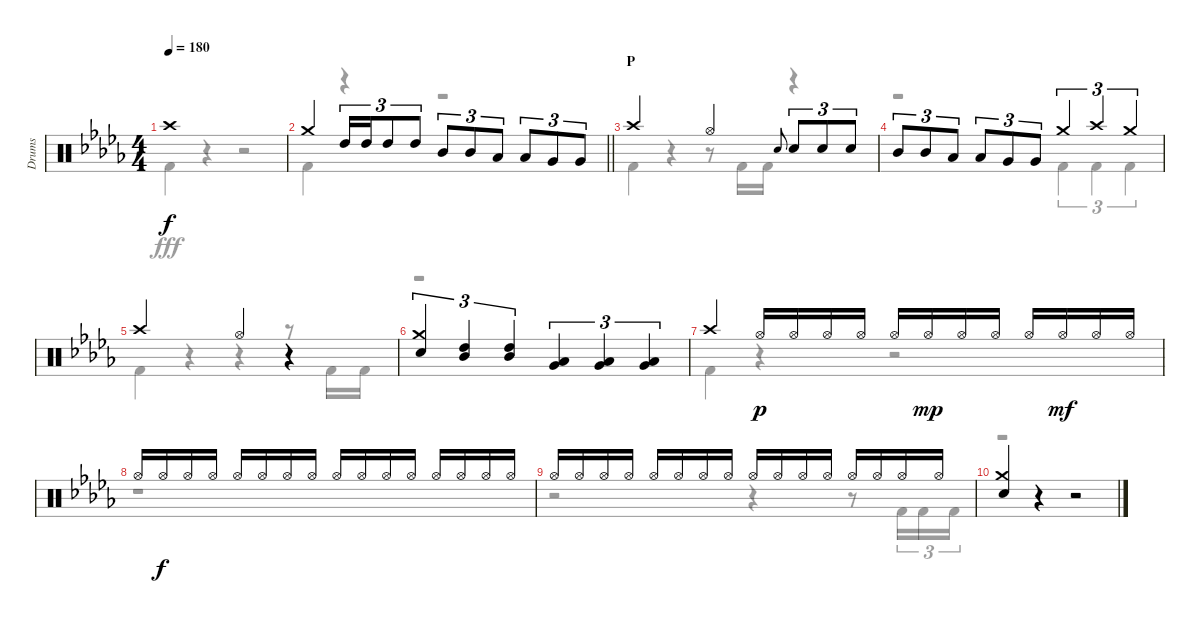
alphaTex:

\track ("Drums" "Drums") {instrument percussion}
\staff {score}
\articulation defaults
\voice
\ts (4 4)
\tempo 180
\clef neutral
\ks db "Crash high (hit)".1{dy f}
|
\barLineRight lightlight "Crash medium (hit)".4 "High Tom (hit)".16{tu (3 2)} "High Tom (hit)".16{tu (3 2)} "High Tom (hit)".8{tu (3 2)} "High Tom (hit)".8{tu (3 2)} "Mid Tom (hit)".8{tu (3 2)} "Mid Tom (hit)".8{tu (3 2)} "Low Tom (hit)".8{tu (3 2)} "Low Tom (hit)".8{tu (3 2)} "Very Low Tom (hit)".8{tu (3 2)} "Very Low Tom (hit)".8{tu (3 2)}
|
\section ("" "P")
"Crash high (hit)".2 "Hi-Hat (open)".4 "Snare (hit) 2".8{gr onbeat} "Snare (hit) 2".8{tu (3 2)} "Snare (hit) 2".8{tu (3 2)} "Snare (hit) 2".8{tu (3 2)} |
"Mid Tom (hit)".8{tu (3 2)} "Mid Tom (hit)".8{tu (3 2)} "Low Tom (hit)".8{tu (3 2)} "Low Tom (hit)".8{tu (3 2)} "Very Low Tom (hit)".8{tu (3 2)} "Very Low Tom (hit)".8{tu (3 2)} "Crash medium (hit)".4{tu (3 2)} "Crash high (hit)".4{tu (3 2)} "Crash medium (hit)".4{tu (3 2)} |
"Crash high (hit)".2 "Hi-Hat (open)".4 r.4 |
("Crash medium (hit)" "Snare (hit) 2").4{tu (3 2)} ("High Tom (hit)" "Mid Tom (hit)").4{tu (3 2)} ("High Tom (hit)" "Mid Tom (hit)").4{tu (3 2)} ("Low Tom (hit)" "Very Low Tom (hit)").4{tu (3 2)} ("Low Tom (hit)" "Very Low Tom (hit)").4{tu (3 2)} ("Low Tom (hit)" "Very Low Tom (hit)").4{tu (3 2)} |
"Crash high (hit)".4 "Hi-Hat (open)".16{dy p} "Hi-Hat (open)".16 "Hi-Hat (open)".16 "Hi-Hat (open)".16 "Hi-Hat (open)".16 "Hi-Hat (open)".16{dy mp} "Hi-Hat (open)".16 "Hi-Hat (open)".16 "Hi-Hat (open)".16 "Hi-Hat (open)".16{dy mf} "Hi-Hat (open)".16 "Hi-Hat (open)".16 |
"Hi-Hat (open)".16 "Hi-Hat (open)".16{dy f} "Hi-Hat (open)".16 "Hi-Hat (open)".16 "Hi-Hat (open)".16 "Hi-Hat (open)".16 "Hi-Hat (open)".16 "Hi-Hat (open)".16 "Hi-Hat (open)".16 "Hi-Hat (open)".16 "Hi-Hat (open)".16 "Hi-Hat (open)".16 "Hi-Hat (open)".16 "Hi-Hat (open)".16 "Hi-Hat (open)".16 "Hi-Hat (open)".16 |
"Hi-Hat (open)".16 "Hi-Hat (open)".16 "Hi-Hat (open)".16 "Hi-Hat (open)".16 "Hi-Hat (open)".16 "Hi-Hat (open)".16 "Hi-Hat (open)".16 "Hi-Hat (open)".16 "Hi-Hat (open)".16 "Hi-Hat (open)".16 "Hi-Hat (open)".16 "Hi-Hat (open)".16 "Hi-Hat (open)".16 "Hi-Hat (open)".16 "Hi-Hat (open)".16 "Hi-Hat (open)".16 |
("Crash medium (hit)" "Snare (hit) 2").4 r.4 r.2
\voice
\clef neutral
\ottava regular
\simile none
\ks db "Kick (hit) 2".4{dy fff}
r.4 r.2 |
\barLineRight lightlight "Kick (hit) 2".4
r.4 r.2 |
"Kick (hit) 2".4 r.4 r.8 "Kick (hit) 2".16 "Kick (hit) 2".16 r.4 |
r.2 "Kick (hit) 2".4{tu (3 2)} "Kick (hit) 2".4{tu (3 2)} "Kick (hit) 2".4{tu (3 2)} |
"Kick (hit) 2".4 r.4 r.4 r.8 "Kick (hit) 2".16 "Kick (hit) 2".16 |
r.1 |
"Kick (hit) 2".4 r.4 r.2 |
r.1 |
r.2 r.4 r.8 "Kick (hit) 2".16{tu (3 2)} "Kick (hit) 2".16{tu (3 2)} "Kick (hit) 2".16{tu (3 2)} |
r.1
